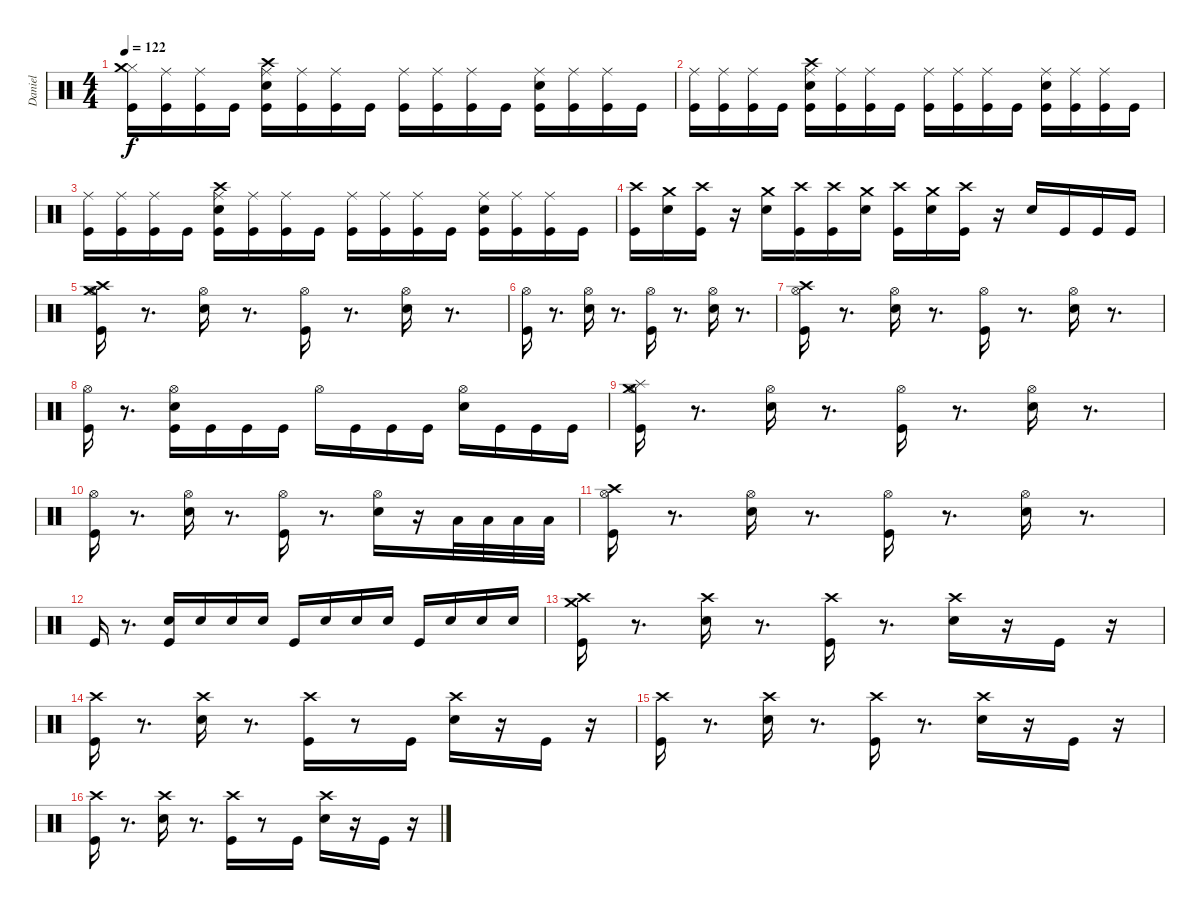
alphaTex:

\track ("Daniel" "Daniel") {instrument percussion}
\staff {score}
\articulation defaults
\ts (4 4)
\tempo 122
\clef neutral
\ks c
("Hi-Hat (closed)" "Crash medium (hit)" "Kick (hit)").16{dy f} ("Ride (middle)" "Kick (hit)").16 ("Ride (middle)" "Kick (hit)").16 "Kick (hit)".16 ("Crash high (hit)" "Ride (middle)" "Electric Snare (hit)" "Kick (hit)").16 ("Ride (middle)" "Kick (hit)").16 ("Ride (middle)" "Kick (hit)").16 "Kick (hit)".16 ("Ride (middle)" "Kick (hit)").16 ("Ride (middle)" "Kick (hit)").16 ("Ride (middle)" "Kick (hit)").16 "Kick (hit)".16 ("Ride (middle)" "Electric Snare (hit)" "Kick (hit)").16 ("Ride (middle)" "Kick (hit)").16 ("Ride (middle)" "Kick (hit)").16 "Kick (hit)".16 |
("Ride (middle)" "Kick (hit)").16 ("Ride (middle)" "Kick (hit)").16 ("Ride (middle)" "Kick (hit)").16 "Kick (hit)".16 ("Crash high (hit)" "Ride (middle)" "Electric Snare (hit)" "Kick (hit)").16 ("Ride (middle)" "Kick (hit)").16 ("Ride (middle)" "Kick (hit)").16 "Kick (hit)".16 ("Ride (middle)" "Kick (hit)").16 ("Ride (middle)" "Kick (hit)").16 ("Ride (middle)" "Kick (hit)").16 "Kick (hit)".16 ("Electric Snare (hit)" "Ride (middle)" "Kick (hit)").16 ("Ride (middle)" "Kick (hit)").16 ("Ride (middle)" "Kick (hit)").16 "Kick (hit)".16 |
("Ride (middle)" "Kick (hit)").16 ("Ride (middle)" "Kick (hit)").16 ("Ride (middle)" "Kick (hit)").16 "Kick (hit)".16 ("Crash high (hit)" "Electric Snare (hit)" "Ride (middle)" "Kick (hit)").16 ("Ride (middle)" "Kick (hit)").16 ("Ride (middle)" "Kick (hit)").16 "Kick (hit)".16 ("Ride (middle)" "Kick (hit)").16 ("Ride (middle)" "Kick (hit)").16 ("Ride (middle)" "Kick (hit)").16 "Kick (hit)".16 ("Electric Snare (hit)" "Ride (middle)" "Kick (hit)").16 ("Ride (middle)" "Kick (hit)").16 ("Ride (middle)" "Kick (hit)").16 "Kick (hit)".16 |
("Crash high (hit)" "Kick (hit)").16 ("Crash medium (hit)" "Electric Snare (hit)").16 ("Crash high (hit)" "Kick (hit)").16 r.16 ("Crash medium (hit)" "Electric Snare (hit)").16 ("Crash high (hit)" "Kick (hit)").16 ("Crash high (hit)" "Kick (hit)").16 ("Crash medium (hit)" "Electric Snare (hit)").16 ("Crash high (hit)" "Kick (hit)").16 ("Crash medium (hit)" "Electric Snare (hit)").16 ("Crash high (hit)" "Kick (hit)").16 r.16 "Electric Snare (hit)".16 "Kick (hit)".16 "Kick (hit)".16 "Kick (hit)".16 |
("Crash medium (hit)" "Crash high (hit)" "Kick (hit)" "Hi-Hat (open)").16 r.8{d} ("Electric Snare (hit)" "Hi-Hat (open)").16 r.8{d} ("Kick (hit)" "Hi-Hat (open)").16 r.8{d} ("Electric Snare (hit)" "Hi-Hat (open)").16 r.8{d} |
("Kick (hit)" "Hi-Hat (open)").16 r.8{d} ("Electric Snare (hit)" "Hi-Hat (open)").16 r.8{d} ("Kick (hit)" "Hi-Hat (open)").16 r.8{d} ("Electric Snare (hit)" "Hi-Hat (open)").16 r.8{d} |
("Crash high (hit)" "Kick (hit)" "Hi-Hat (open)").16 r.8{d} ("Electric Snare (hit)" "Hi-Hat (open)").16 r.8{d} ("Kick (hit)" "Hi-Hat (open)").16 r.8{d} ("Electric Snare (hit)" "Hi-Hat (open)").16 r.8{d} |
("Kick (hit)" "Hi-Hat (open)").16 r.8{d} ("Kick (hit)" "Electric Snare (hit)" "Hi-Hat (open)").16 "Kick (hit)".16 "Kick (hit)".16 "Kick (hit)".16 "Hi-Hat (open)".16 "Kick (hit)".16 "Kick (hit)".16 "Kick (hit)".16 ("Electric Snare (hit)" "Hi-Hat (open)").16 "Kick (hit)".16 "Kick (hit)".16 "Kick (hit)".16 |
("Splash (hit)" "Crash medium (hit)" "Kick (hit)" "Hi-Hat (open)").16 r.8{d} ("Electric Snare (hit)" "Hi-Hat (open)").16 r.8{d} ("Kick (hit)" "Hi-Hat (open)").16 r.8{d} ("Electric Snare (hit)" "Hi-Hat (open)").16 r.8{d} |
("Kick (hit)" "Hi-Hat (open)").16 r.8{d} ("Electric Snare (hit)" "Hi-Hat (open)").16 r.8{d} ("Kick (hit)" "Hi-Hat (open)").16 r.8{d} ("Electric Snare (hit)" "Hi-Hat (open)").16 r.16 "Low Floor Tom (hit)".32 "Low Floor Tom (hit)".32 "Low Floor Tom (hit)".32 "Low Floor Tom (hit)".32 |
("Crash high (hit)" "Kick (hit)" "Hi-Hat (open)").16 r.8{d} ("Electric Snare (hit)" "Hi-Hat (open)").16 r.8{d} ("Kick (hit)" "Hi-Hat (open)").16 r.8{d} ("Electric Snare (hit)" "Hi-Hat (open)").16 r.8{d} |
"Kick (hit)".16 r.8{d} ("Kick (hit)" "Electric Snare (hit)").16 "Electric Snare (hit)".16 "Electric Snare (hit)".16 "Electric Snare (hit)".16 "Kick (hit)".16 "Electric Snare (hit)".16 "Electric Snare (hit)".16 "Electric Snare (hit)".16 "Kick (hit)".16 "Electric Snare (hit)".16 "Electric Snare (hit)".16 "Electric Snare (hit)".16 |
("Kick (hit)" "Crash high (hit)" "Crash medium (hit)").16 r.8{d} ("Electric Snare (hit)" "Crash high (hit)").16 r.8{d} ("Kick (hit)" "Crash high (hit)").16 r.8{d} ("Electric Snare (hit)" "Crash high (hit)").16 r.16 "Kick (hit)".16 r.16 |
("Kick (hit)" "Crash high (hit)").16 r.8{d} ("Electric Snare (hit)" "Crash high (hit)").16 r.8{d} ("Kick (hit)" "Crash high (hit)").16 r.8 "Kick (hit)".16 ("Electric Snare (hit)" "Crash high (hit)").16 r.16 "Kick (hit)".16 r.16 |
("Crash high (hit)" "Kick (hit)").16 r.8{d} ("Electric Snare (hit)" "Crash high (hit)").16 r.8{d} ("Kick (hit)" "Crash high (hit)").16 r.8{d} ("Electric Snare (hit)" "Crash high (hit)").16 r.16 "Kick (hit)".16 r.16 |
("Kick (hit)" "Crash high (hit)").16 r.8{d} ("Electric Snare (hit)" "Crash high (hit)").16 r.8{d} ("Kick (hit)" "Crash high (hit)").16 r.8 "Kick (hit)".16 ("Electric Snare (hit)" "Crash high (hit)").16 r.16 "Kick (hit)".16 r.16
